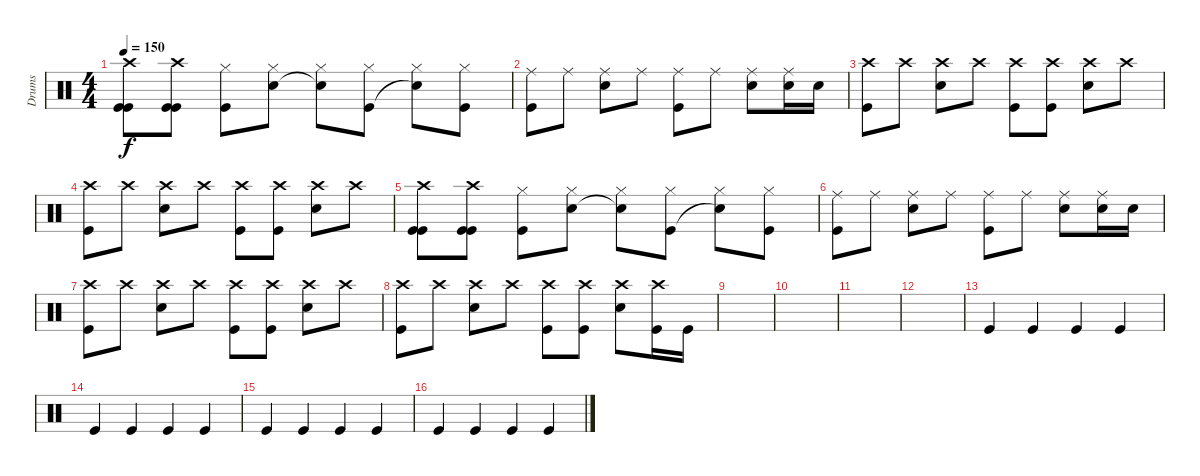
\track ("Drums" "Drums") {instrument percussion}
\staff {score}
\articulation defaults
\ts (4 4)
\tempo 150
\clef neutral
\ks c
("Crash high (hit)" "Kick (hit)" "Kick (hit)").8{dy f} ("Crash high (hit)" "Kick (hit)" "Kick (hit)").8 ("Hi-Hat (closed)" "Kick (hit)").8 ("Hi-Hat (closed)" "Snare (hit) 2").8 ("Hi-Hat (closed)" "Snare (hit)"{t}).8 ("Hi-Hat (closed)" "Kick (hit)").8 ("Hi-Hat (closed)" "Snare (hit)"{t}).8 ("Hi-Hat (closed)" "Kick (hit)").8 |
("Ride (middle)" "Kick (hit)").8 "Ride (middle)".8 ("Ride (middle)" "Snare (hit) 2").8 "Ride (middle)".8 ("Ride (middle)" "Kick (hit)").8 "Ride (middle)".8 ("Ride (middle)" "Snare (hit) 2").8 ("Ride (middle)" "Snare (hit) 2").16 "Snare (hit) 2".16 |
("Crash high (hit)" "Kick (hit)").8 "Crash high (hit)".8 ("Crash high (hit)" "Snare (hit) 2").8 "Crash high (hit)".8 ("Crash high (hit)" "Kick (hit)").8 ("Crash high (hit)" "Kick (hit)").8 ("Crash high (hit)" "Snare (hit) 2").8 "Crash high (hit)".8 |
("Crash high (hit)" "Kick (hit)").8 "Crash high (hit)".8 ("Crash high (hit)" "Snare (hit) 2").8 "Crash high (hit)".8 ("Crash high (hit)" "Kick (hit)").8 ("Crash high (hit)" "Kick (hit)").8 ("Crash high (hit)" "Snare (hit) 2").8 "Crash high (hit)".8 |
("Crash high (hit)" "Kick (hit)" "Kick (hit)").8 ("Crash high (hit)" "Kick (hit)" "Kick (hit)").8 ("Hi-Hat (closed)" "Kick (hit)").8 ("Hi-Hat (closed)" "Snare (hit) 2").8 ("Hi-Hat (closed)" "Snare (hit)"{t}).8 ("Hi-Hat (closed)" "Kick (hit)").8 ("Hi-Hat (closed)" "Snare (hit)"{t}).8 ("Hi-Hat (closed)" "Kick (hit)").8 |
("Ride (middle)" "Kick (hit)").8 "Ride (middle)".8 ("Ride (middle)" "Snare (hit) 2").8 "Ride (middle)".8 ("Ride (middle)" "Kick (hit)").8 "Ride (middle)".8 ("Ride (middle)" "Snare (hit) 2").8 ("Ride (middle)" "Snare (hit) 2").16 "Snare (hit) 2".16 |
("Crash high (hit)" "Kick (hit)").8 "Crash high (hit)".8 ("Crash high (hit)" "Snare (hit) 2").8 "Crash high (hit)".8 ("Crash high (hit)" "Kick (hit)").8 ("Crash high (hit)" "Kick (hit)").8 ("Crash high (hit)" "Snare (hit) 2").8 "Crash high (hit)".8 |
("Crash high (hit)" "Kick (hit)").8 "Crash high (hit)".8 ("Crash high (hit)" "Snare (hit) 2").8 "Crash high (hit)".8 ("Crash high (hit)" "Kick (hit)").8 ("Crash high (hit)" "Kick (hit)").8 ("Crash high (hit)" "Snare (hit) 2").8 ("Crash high (hit)" "Kick (hit)").16 "Kick (hit)".16 |
|
|
|
|
"Kick (hit)".4 "Kick (hit)".4 "Kick (hit)".4 "Kick (hit)".4 |
"Kick (hit)".4 "Kick (hit)".4 "Kick (hit)".4 "Kick (hit)".4 |
"Kick (hit)".4 "Kick (hit)".4 "Kick (hit)".4 "Kick (hit)".4 |
"Kick (hit)".4 "Kick (hit)".4 "Kick (hit)".4 "Kick (hit)".4
